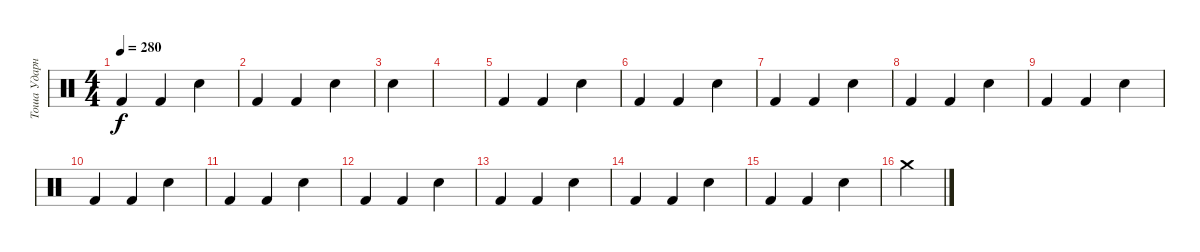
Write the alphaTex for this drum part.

\track ("Тоша Ударные" "Тоша Ударн") {instrument percussion}
\staff {score}
\articulation defaults
\ts (4 4)
\tempo 280
\clef neutral
\ks c "Kick (hit) 2".4{dy f} "Kick (hit) 2".4 "Electric Snare (hit)".4
|
"Kick (hit) 2".4 "Kick (hit) 2".4 "Electric Snare (hit)".4 |
"Electric Snare (hit)".4 |
|
"Kick (hit) 2".4 "Kick (hit) 2".4 "Electric Snare (hit)".4 |
"Kick (hit) 2".4 "Kick (hit) 2".4 "Electric Snare (hit)".4 |
"Kick (hit) 2".4 "Kick (hit) 2".4 "Electric Snare (hit)".4 |
"Kick (hit) 2".4 "Kick (hit) 2".4 "Electric Snare (hit)".4 |
"Kick (hit) 2".4 "Kick (hit) 2".4 "Electric Snare (hit)".4 |
"Kick (hit) 2".4 "Kick (hit) 2".4 "Electric Snare (hit)".4 |
"Kick (hit) 2".4 "Kick (hit) 2".4 "Electric Snare (hit)".4 |
"Kick (hit) 2".4 "Kick (hit) 2".4 "Electric Snare (hit)".4 |
"Kick (hit) 2".4 "Kick (hit) 2".4 "Electric Snare (hit)".4 |
"Kick (hit) 2".4 "Kick (hit) 2".4 "Electric Snare (hit)".4 |
"Kick (hit) 2".4 "Kick (hit) 2".4 "Electric Snare (hit)".4 |
"Crash medium (hit)".4
